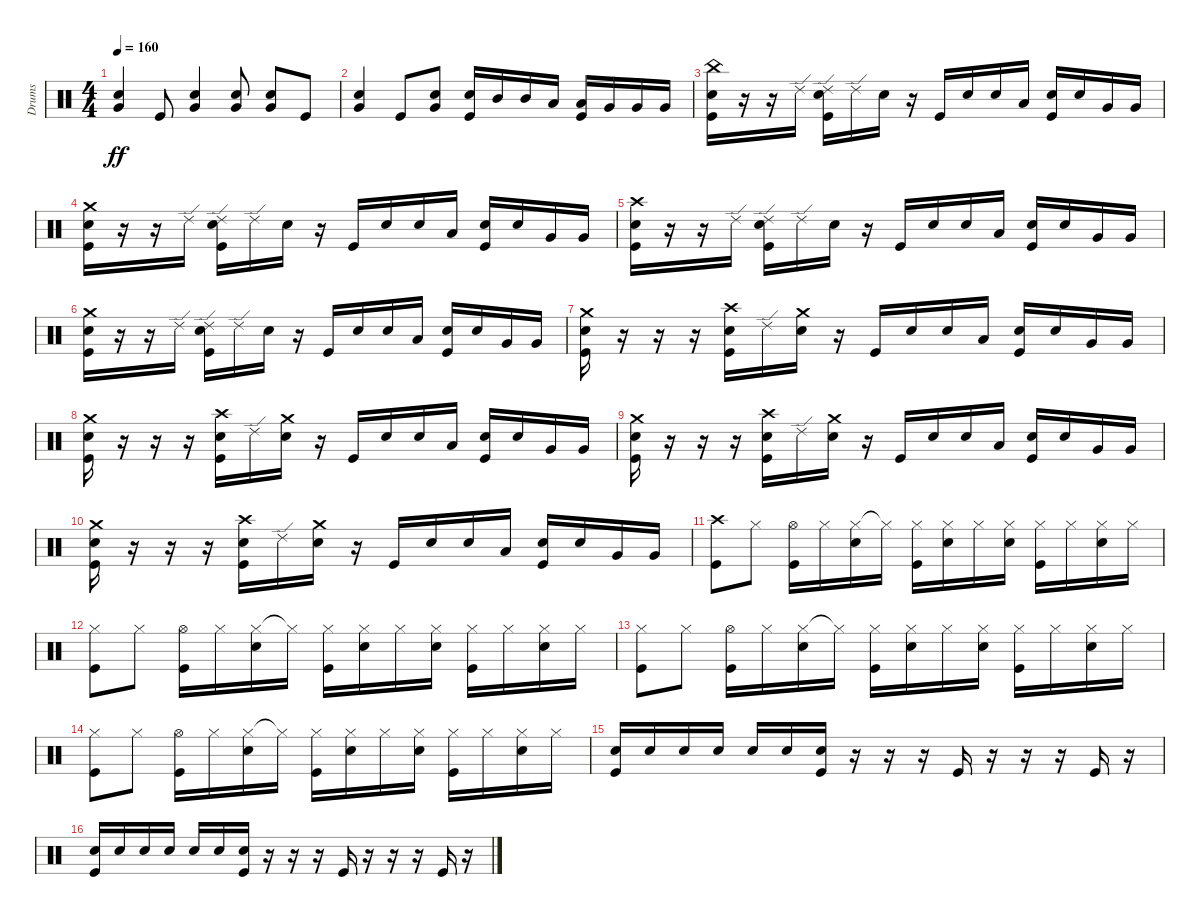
\track ("Drums" "Drums") {instrument percussion}
\staff {score}
\articulation defaults
\ts (4 4)
\tempo 160
\clef neutral
\ks c
("Electric Snare (hit)" "Very Low Tom (hit)").4{dy ff} "Kick (hit)".8 ("Electric Snare (hit)" "Very Low Tom (hit)").4 ("Electric Snare (hit)" "Very Low Tom (hit)").8 ("Electric Snare (hit)" "Very Low Tom (hit)").8 "Kick (hit)".8 |
("Electric Snare (hit)" "Very Low Tom (hit)").4 "Kick (hit)".8 ("Electric Snare (hit)" "Very Low Tom (hit)").8 ("Electric Snare (hit)" "Kick (hit)").16 "Mid Tom (hit)".16 "Mid Tom (hit)".16 "Low Tom (hit)".16 ("Low Tom (hit)" "Kick (hit)").16 "Very Low Tom (hit)".16 "Very Low Tom (hit)".16 "Very Low Tom (hit)".16 |
("China (hit)" "Electric Snare (hit)" "Kick (hit)").16 r.16 r.16 "Ride (edge) 2".16 ("Ride (edge) 2" "Electric Snare (hit)" "Kick (hit)").16 "Ride (edge) 2".16 "Electric Snare (hit)".16 r.16 "Kick (hit)".16 "Electric Snare (hit)".16 "Electric Snare (hit)".16 "Low Tom (hit)".16 ("Electric Snare (hit)" "Kick (hit)").16 "Electric Snare (hit)".16 "Very Low Tom (hit)".16 "Very Low Tom (hit)".16 |
("Crash medium (hit)" "Electric Snare (hit)" "Kick (hit)").16 r.16 r.16 "Ride (edge) 2".16 ("Ride (edge) 2" "Electric Snare (hit)" "Kick (hit)").16 "Ride (edge) 2".16 "Electric Snare (hit)".16 r.16 "Kick (hit)".16 "Electric Snare (hit)".16 "Electric Snare (hit)".16 "Low Tom (hit)".16 ("Electric Snare (hit)" "Kick (hit)").16 "Electric Snare (hit)".16 "Very Low Tom (hit)".16 "Very Low Tom (hit)".16 |
("Crash high (hit)" "Electric Snare (hit)" "Kick (hit)").16 r.16 r.16 "Ride (edge) 2".16 ("Ride (edge) 2" "Electric Snare (hit)" "Kick (hit)").16 "Ride (edge) 2".16 "Electric Snare (hit)".16 r.16 "Kick (hit)".16 "Electric Snare (hit)".16 "Electric Snare (hit)".16 "Low Tom (hit)".16 ("Electric Snare (hit)" "Kick (hit)").16 "Electric Snare (hit)".16 "Very Low Tom (hit)".16 "Very Low Tom (hit)".16 |
("Crash medium (hit)" "Electric Snare (hit)" "Kick (hit)").16 r.16 r.16 "Ride (edge) 2".16 ("Ride (edge) 2" "Electric Snare (hit)" "Kick (hit)").16 "Ride (edge) 2".16 "Electric Snare (hit)".16 r.16 "Kick (hit)".16 "Electric Snare (hit)".16 "Electric Snare (hit)".16 "Low Tom (hit)".16 ("Electric Snare (hit)" "Kick (hit)").16 "Electric Snare (hit)".16 "Very Low Tom (hit)".16 "Very Low Tom (hit)".16 |
("Crash medium (hit)" "Electric Snare (hit)" "Kick (hit)").16 r.16 r.16 r.16 ("Crash high (hit)" "Electric Snare (hit)" "Kick (hit)").16 "Ride (edge) 2".16 ("Crash medium (hit)" "Electric Snare (hit)").16 r.16 "Kick (hit)".16 "Electric Snare (hit)".16 "Electric Snare (hit)".16 "Low Tom (hit)".16 ("Electric Snare (hit)" "Kick (hit)").16 "Electric Snare (hit)".16 "Very Low Tom (hit)".16 "Very Low Tom (hit)".16 |
("Crash medium (hit)" "Electric Snare (hit)" "Kick (hit)").16 r.16 r.16 r.16 ("Crash high (hit)" "Electric Snare (hit)" "Kick (hit)").16 "Ride (edge) 2".16 ("Crash medium (hit)" "Electric Snare (hit)").16 r.16 "Kick (hit)".16 "Electric Snare (hit)".16 "Electric Snare (hit)".16 "Low Tom (hit)".16 ("Electric Snare (hit)" "Kick (hit)").16 "Electric Snare (hit)".16 "Very Low Tom (hit)".16 "Very Low Tom (hit)".16 |
("Crash medium (hit)" "Electric Snare (hit)" "Kick (hit)").16 r.16 r.16 r.16 ("Crash high (hit)" "Electric Snare (hit)" "Kick (hit)").16 "Ride (edge) 2".16 ("Crash medium (hit)" "Electric Snare (hit)").16 r.16 "Kick (hit)".16 "Electric Snare (hit)".16 "Electric Snare (hit)".16 "Low Tom (hit)".16 ("Electric Snare (hit)" "Kick (hit)").16 "Electric Snare (hit)".16 "Very Low Tom (hit)".16 "Very Low Tom (hit)".16 |
("Crash medium (hit)" "Electric Snare (hit)" "Kick (hit)").16 r.16 r.16 r.16 ("Crash high (hit)" "Electric Snare (hit)" "Kick (hit)").16 "Ride (edge) 2".16 ("Crash medium (hit)" "Electric Snare (hit)").16 r.16 "Kick (hit)".16 "Electric Snare (hit)".16 "Electric Snare (hit)".16 "Low Tom (hit)".16 ("Electric Snare (hit)" "Kick (hit)").16 "Electric Snare (hit)".16 "Very Low Tom (hit)".16 "Very Low Tom (hit)".16 |
("Crash high (hit)" "Kick (hit)").8 "Hi-Hat (closed)".8 ("Hi-Hat (open)" "Kick (hit)").16 "Hi-Hat (closed)".16 ("Hi-Hat (closed)" "Electric Snare (hit)").16 "Hi-Hat (closed)"{t}.16 ("Hi-Hat (closed)" "Kick (hit)").16 ("Hi-Hat (closed)" "Electric Snare (hit)").16 "Hi-Hat (closed)".16 ("Hi-Hat (closed)" "Electric Snare (hit)").16 ("Hi-Hat (closed)" "Kick (hit)").16 "Hi-Hat (closed)".16 ("Hi-Hat (closed)" "Electric Snare (hit)").16 "Hi-Hat (closed)".16 |
("Hi-Hat (closed)" "Kick (hit)").8 "Hi-Hat (closed)".8 ("Hi-Hat (open)" "Kick (hit)").16 "Hi-Hat (closed)".16 ("Hi-Hat (closed)" "Electric Snare (hit)").16 "Hi-Hat (closed)"{t}.16 ("Hi-Hat (closed)" "Kick (hit)").16 ("Hi-Hat (closed)" "Electric Snare (hit)").16 "Hi-Hat (closed)".16 ("Hi-Hat (closed)" "Electric Snare (hit)").16 ("Hi-Hat (closed)" "Kick (hit)").16 "Hi-Hat (closed)".16 ("Hi-Hat (closed)" "Electric Snare (hit)").16 "Hi-Hat (closed)".16 |
("Hi-Hat (closed)" "Kick (hit)").8 "Hi-Hat (closed)".8 ("Hi-Hat (open)" "Kick (hit)").16 "Hi-Hat (closed)".16 ("Hi-Hat (closed)" "Electric Snare (hit)").16 "Hi-Hat (closed)"{t}.16 ("Hi-Hat (closed)" "Kick (hit)").16 ("Hi-Hat (closed)" "Electric Snare (hit)").16 "Hi-Hat (closed)".16 ("Hi-Hat (closed)" "Electric Snare (hit)").16 ("Hi-Hat (closed)" "Kick (hit)").16 "Hi-Hat (closed)".16 ("Hi-Hat (closed)" "Electric Snare (hit)").16 "Hi-Hat (closed)".16 |
("Hi-Hat (closed)" "Kick (hit)").8 "Hi-Hat (closed)".8 ("Hi-Hat (open)" "Kick (hit)").16 "Hi-Hat (closed)".16 ("Hi-Hat (closed)" "Electric Snare (hit)").16 "Hi-Hat (closed)"{t}.16 ("Hi-Hat (closed)" "Kick (hit)").16 ("Hi-Hat (closed)" "Electric Snare (hit)").16 "Hi-Hat (closed)".16 ("Hi-Hat (closed)" "Electric Snare (hit)").16 ("Hi-Hat (closed)" "Kick (hit)").16 "Hi-Hat (closed)".16 ("Hi-Hat (closed)" "Electric Snare (hit)").16 "Hi-Hat (closed)".16 |
("Electric Snare (hit)" "Kick (hit)").16 "Electric Snare (hit)".16 "Electric Snare (hit)".16 "Electric Snare (hit)".16 "Electric Snare (hit)".16 "Electric Snare (hit)".16 ("Electric Snare (hit)" "Kick (hit)").16 r.16 r.16 r.16 "Kick (hit)".16 r.16 r.16 r.16 "Kick (hit)".16 r.16 |
("Electric Snare (hit)" "Kick (hit)").16 "Electric Snare (hit)".16 "Electric Snare (hit)".16 "Electric Snare (hit)".16 "Electric Snare (hit)".16 "Electric Snare (hit)".16 ("Electric Snare (hit)" "Kick (hit)").16 r.16 r.16 r.16 "Kick (hit)".16 r.16 r.16 r.16 "Kick (hit)".16 r.16
